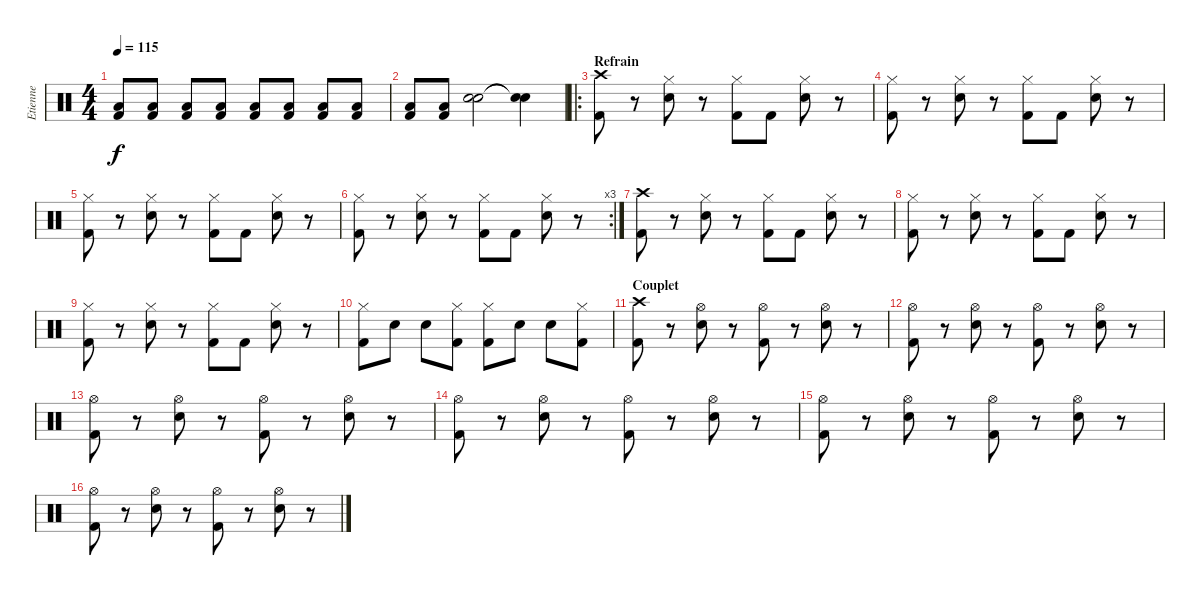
\track ("Etienne" "Etienne") {instrument percussion}
\staff {score}
\articulation defaults
\ts (4 4)
\tempo 115
\clef neutral
\ks c
("Kick (hit) 2" "Low Tom (hit)").8{dy f volume 3} ("Kick (hit) 2" "Low Tom (hit)").8{volume 14} ("Kick (hit) 2" "Low Tom (hit)").8 ("Kick (hit) 2" "Low Tom (hit)").8 ("Kick (hit) 2" "Low Tom (hit)").8 ("Kick (hit) 2" "Low Tom (hit)").8 ("Kick (hit) 2" "Low Tom (hit)").8 ("Kick (hit) 2" "Low Tom (hit)").8 |
("Kick (hit) 2" "Low Tom (hit)").8 ("Kick (hit) 2" "Low Tom (hit)").8 ("Electric Snare (hit)" "Electric Snare (hit)").2 ("Snare (hit)"{t} "Snare (hit)"{t}).4 |
\ro
\section ("" "Refrain")
("Crash high (hit)" "Kick (hit) 2").8 r.8 ("Hi-Hat (closed)" "Electric Snare (hit)").8 r.8 ("Hi-Hat (closed)" "Kick (hit) 2").8 "Kick (hit) 2".8 ("Hi-Hat (closed)" "Electric Snare (hit)").8 r.8 |
("Hi-Hat (closed)" "Kick (hit) 2").8 r.8 ("Hi-Hat (closed)" "Electric Snare (hit)").8 r.8 ("Hi-Hat (closed)" "Kick (hit) 2").8 "Kick (hit) 2".8 ("Hi-Hat (closed)" "Electric Snare (hit)").8 r.8 |
("Hi-Hat (closed)" "Kick (hit) 2").8 r.8 ("Hi-Hat (closed)" "Electric Snare (hit)").8 r.8 ("Hi-Hat (closed)" "Kick (hit) 2").8 "Kick (hit) 2".8 ("Hi-Hat (closed)" "Electric Snare (hit)").8 r.8 |
\rc 3
("Hi-Hat (closed)" "Kick (hit) 2").8 r.8 ("Hi-Hat (closed)" "Electric Snare (hit)").8 r.8 ("Hi-Hat (closed)" "Kick (hit) 2").8 "Kick (hit) 2".8 ("Hi-Hat (closed)" "Electric Snare (hit)").8 r.8 |
("Crash high (hit)" "Kick (hit) 2").8 r.8 ("Hi-Hat (closed)" "Electric Snare (hit)").8 r.8 ("Hi-Hat (closed)" "Kick (hit) 2").8 "Kick (hit) 2".8 ("Hi-Hat (closed)" "Electric Snare (hit)").8 r.8 |
("Hi-Hat (closed)" "Kick (hit) 2").8 r.8 ("Hi-Hat (closed)" "Electric Snare (hit)").8 r.8 ("Hi-Hat (closed)" "Kick (hit) 2").8 "Kick (hit) 2".8 ("Hi-Hat (closed)" "Electric Snare (hit)").8 r.8 |
("Hi-Hat (closed)" "Kick (hit) 2").8 r.8 ("Hi-Hat (closed)" "Electric Snare (hit)").8 r.8 ("Hi-Hat (closed)" "Kick (hit) 2").8 "Kick (hit) 2".8 ("Hi-Hat (closed)" "Electric Snare (hit)").8 r.8 |
("Hi-Hat (closed)" "Kick (hit) 2").8 "Electric Snare (hit)".8 "Electric Snare (hit)".8 ("Hi-Hat (closed)" "Kick (hit) 2").8 ("Hi-Hat (closed)" "Kick (hit) 2").8 "Electric Snare (hit)".8 "Electric Snare (hit)".8 ("Hi-Hat (closed)" "Kick (hit) 2").8 |
\section ("" "Couplet")
("Crash high (hit)" "Kick (hit) 2").8 r.8 ("Hi-Hat (open)" "Electric Snare (hit)").8 r.8 ("Hi-Hat (open)" "Kick (hit) 2").8 r.8 ("Hi-Hat (open)" "Electric Snare (hit)").8 r.8 |
("Hi-Hat (open)" "Kick (hit) 2").8 r.8 ("Hi-Hat (open)" "Electric Snare (hit)").8 r.8 ("Hi-Hat (open)" "Kick (hit) 2").8 r.8 ("Hi-Hat (open)" "Electric Snare (hit)").8 r.8 |
("Hi-Hat (open)" "Kick (hit) 2").8 r.8 ("Hi-Hat (open)" "Electric Snare (hit)").8 r.8 ("Hi-Hat (open)" "Kick (hit) 2").8 r.8 ("Hi-Hat (open)" "Electric Snare (hit)").8 r.8 |
("Hi-Hat (open)" "Kick (hit) 2").8 r.8 ("Hi-Hat (open)" "Electric Snare (hit)").8 r.8 ("Hi-Hat (open)" "Kick (hit) 2").8 r.8 ("Hi-Hat (open)" "Electric Snare (hit)").8 r.8 |
("Hi-Hat (open)" "Kick (hit) 2").8 r.8 ("Hi-Hat (open)" "Electric Snare (hit)").8 r.8 ("Hi-Hat (open)" "Kick (hit) 2").8 r.8 ("Hi-Hat (open)" "Electric Snare (hit)").8 r.8 |
("Hi-Hat (open)" "Kick (hit) 2").8 r.8 ("Hi-Hat (open)" "Electric Snare (hit)").8 r.8 ("Hi-Hat (open)" "Kick (hit) 2").8 r.8 ("Hi-Hat (open)" "Electric Snare (hit)").8 r.8
